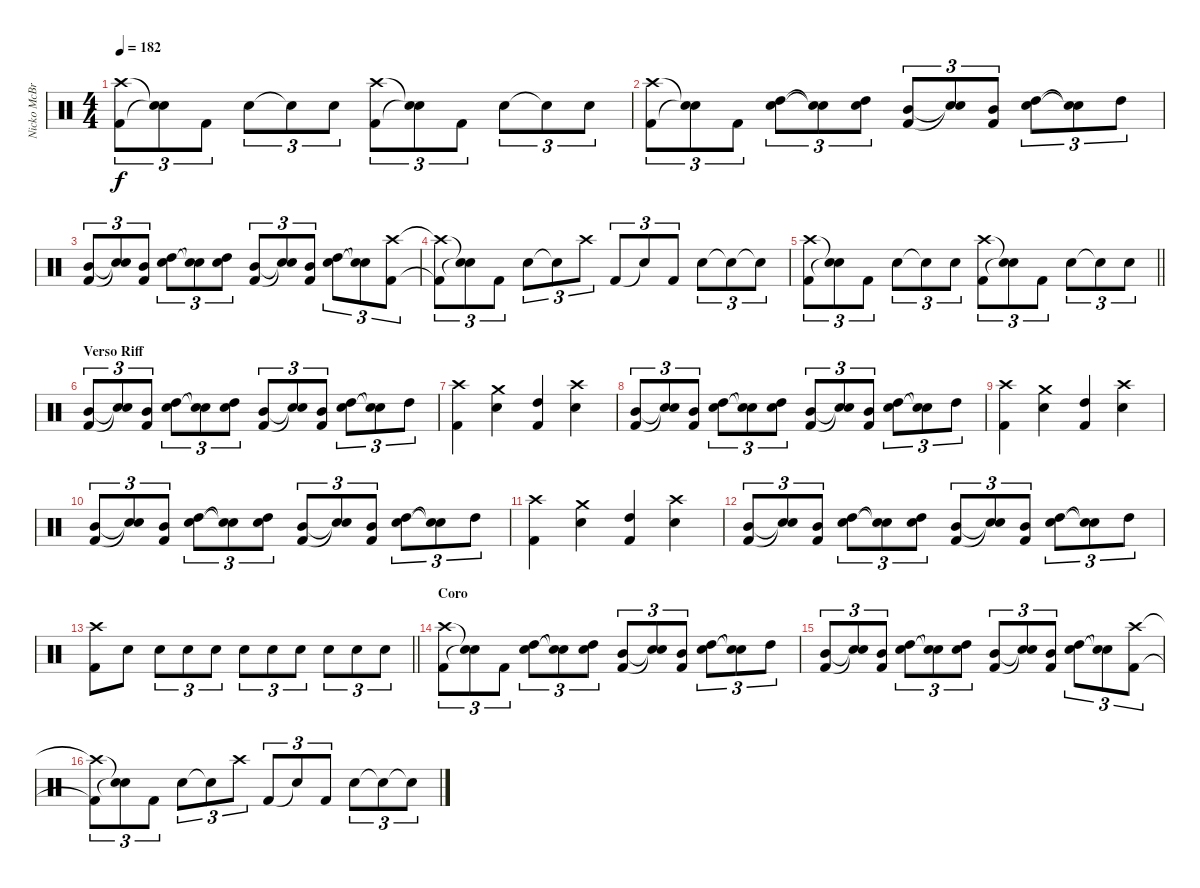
\track ("Nicko McBrain" "Nicko McBr") {instrument percussion}
\staff {score}
\articulation defaults
\ts (4 4)
\tempo 182
\clef neutral
\ks c
("Kick (hit) 2" "Crash high (hit)").8{tu (3 2) dy f} ("Snare (hit)"{t} "Snare (hit)"{t}).8{tu (3 2)} "Kick (hit) 2".8{tu (3 2)} "Snare (hit) 2".8{tu (3 2)} "Snare (hit)"{t}.8{tu (3 2)} "Snare (hit) 2".8{tu (3 2)} ("Kick (hit) 2" "Crash high (hit)").8{tu (3 2)} ("Snare (hit)"{t} "Snare (hit)"{t}).8{tu (3 2)} "Kick (hit) 2".8{tu (3 2)} "Snare (hit) 2".8{tu (3 2)} "Snare (hit)"{t}.8{tu (3 2)} "Snare (hit) 2".8{tu (3 2)} |
("Kick (hit) 2" "Crash high (hit)").8{tu (3 2)} ("Snare (hit)"{t} "Snare (hit)"{t}).8{tu (3 2)} "Kick (hit) 2".8{tu (3 2)} ("High Tom (hit)" "Snare (hit) 2").8{tu (3 2)} ("Snare (hit)"{t} "Snare (hit)"{t}).8{tu (3 2)} ("High Tom (hit)" "Snare (hit) 2").8{tu (3 2)} ("Mid Tom (hit)" "Kick (hit) 2").8{tu (3 2)} ("Snare (hit)"{t} "Snare (hit)"{t}).8{tu (3 2)} ("Mid Tom (hit)" "Kick (hit) 2").8{tu (3 2)} ("High Tom (hit)" "Snare (hit) 2").8{tu (3 2)} ("Snare (hit)"{t} "Snare (hit)"{t}).8{tu (3 2)} "High Tom (hit)".8{tu (3 2)} |
("Mid Tom (hit)" "Kick (hit) 2").8{tu (3 2)} ("Snare (hit)"{t} "Snare (hit)"{t}).8{tu (3 2)} ("Mid Tom (hit)" "Kick (hit) 2").8{tu (3 2)} ("High Tom (hit)" "Snare (hit) 2").8{tu (3 2)} ("Snare (hit)"{t} "Snare (hit)"{t}).8{tu (3 2)} ("High Tom (hit)" "Snare (hit) 2").8{tu (3 2)} ("Mid Tom (hit)" "Kick (hit) 2").8{tu (3 2)} ("Snare (hit)"{t} "Snare (hit)"{t}).8{tu (3 2)} ("Mid Tom (hit)" "Kick (hit) 2").8{tu (3 2)} ("High Tom (hit)" "Snare (hit) 2").8{tu (3 2)} ("Snare (hit)"{t} "Snare (hit)"{t}).8{tu (3 2)} ("Kick (hit) 2" "Crash high (hit)").8{tu (3 2)} |
("Kick (hit) 2"{t} "Crash high (hit)"{t}).8{tu (3 2)} ("Snare (hit)"{t} "Snare (hit)"{t}).8{tu (3 2)} "Kick (hit) 2".8{tu (3 2)} "Snare (hit) 2".8{tu (3 2)} "Snare (hit)"{t}.8{tu (3 2)} "Crash high (hit)".8{tu (3 2)} "Kick (hit) 2".8{tu (3 2)} "Snare (hit)"{t}.8{tu (3 2)} "Kick (hit) 2".8{tu (3 2)} "Snare (hit) 2".8{tu (3 2)} "Snare (hit)"{t}.8{tu (3 2)} "Snare (hit)"{t}.8{tu (3 2)} |
\barLineRight lightlight
("Kick (hit) 2" "Crash high (hit)").8{tu (3 2)} ("Snare (hit)"{t} "Snare (hit)"{t}).8{tu (3 2)} "Kick (hit) 2".8{tu (3 2)} "Snare (hit) 2".8{tu (3 2)} "Snare (hit)"{t}.8{tu (3 2)} "Snare (hit) 2".8{tu (3 2)} ("Kick (hit) 2" "Crash high (hit)").8{tu (3 2)} ("Snare (hit)"{t} "Snare (hit)"{t}).8{tu (3 2)} "Kick (hit) 2".8{tu (3 2)} "Snare (hit) 2".8{tu (3 2)} "Snare (hit)"{t}.8{tu (3 2)} "Snare (hit) 2".8{tu (3 2)} |
\section ("" "Verso Riff")
("Mid Tom (hit)" "Kick (hit) 2").8{tu (3 2)} ("Snare (hit)"{t} "Snare (hit)"{t}).8{tu (3 2)} ("Mid Tom (hit)" "Kick (hit) 2").8{tu (3 2)} ("High Tom (hit)" "Snare (hit) 2").8{tu (3 2)} ("Snare (hit)"{t} "Snare (hit)"{t}).8{tu (3 2)} ("High Tom (hit)" "Snare (hit) 2").8{tu (3 2)} ("Mid Tom (hit)" "Kick (hit) 2").8{tu (3 2)} ("Snare (hit)"{t} "Snare (hit)"{t}).8{tu (3 2)} ("Mid Tom (hit)" "Kick (hit) 2").8{tu (3 2)} ("High Tom (hit)" "Snare (hit) 2").8{tu (3 2)} ("Snare (hit)"{t} "Snare (hit)"{t}).8{tu (3 2)} "High Tom (hit)".8{tu (3 2)} |
("Kick (hit) 2" "Crash high (hit)").4 ("Snare (hit) 2" "Crash medium (hit)").4 ("High Tom (hit)" "Kick (hit) 2").4 ("Snare (hit) 2" "Crash high (hit)").4 |
("Mid Tom (hit)" "Kick (hit) 2").8{tu (3 2)} ("Snare (hit)"{t} "Snare (hit)"{t}).8{tu (3 2)} ("Mid Tom (hit)" "Kick (hit) 2").8{tu (3 2)} ("High Tom (hit)" "Snare (hit) 2").8{tu (3 2)} ("Snare (hit)"{t} "Snare (hit)"{t}).8{tu (3 2)} ("High Tom (hit)" "Snare (hit) 2").8{tu (3 2)} ("Mid Tom (hit)" "Kick (hit) 2").8{tu (3 2)} ("Snare (hit)"{t} "Snare (hit)"{t}).8{tu (3 2)} ("Mid Tom (hit)" "Kick (hit) 2").8{tu (3 2)} ("High Tom (hit)" "Snare (hit) 2").8{tu (3 2)} ("Snare (hit)"{t} "Snare (hit)"{t}).8{tu (3 2)} "High Tom (hit)".8{tu (3 2)} |
("Kick (hit) 2" "Crash high (hit)").4 ("Snare (hit) 2" "Crash medium (hit)").4 ("High Tom (hit)" "Kick (hit) 2").4 ("Snare (hit) 2" "Crash high (hit)").4 |
("Mid Tom (hit)" "Kick (hit) 2").8{tu (3 2)} ("Snare (hit)"{t} "Snare (hit)"{t}).8{tu (3 2)} ("Mid Tom (hit)" "Kick (hit) 2").8{tu (3 2)} ("High Tom (hit)" "Snare (hit) 2").8{tu (3 2)} ("Snare (hit)"{t} "Snare (hit)"{t}).8{tu (3 2)} ("High Tom (hit)" "Snare (hit) 2").8{tu (3 2)} ("Mid Tom (hit)" "Kick (hit) 2").8{tu (3 2)} ("Snare (hit)"{t} "Snare (hit)"{t}).8{tu (3 2)} ("Mid Tom (hit)" "Kick (hit) 2").8{tu (3 2)} ("High Tom (hit)" "Snare (hit) 2").8{tu (3 2)} ("Snare (hit)"{t} "Snare (hit)"{t}).8{tu (3 2)} "High Tom (hit)".8{tu (3 2)} |
("Kick (hit) 2" "Crash high (hit)").4 ("Snare (hit) 2" "Crash medium (hit)").4 ("High Tom (hit)" "Kick (hit) 2").4 ("Snare (hit) 2" "Crash high (hit)").4 |
("Mid Tom (hit)" "Kick (hit) 2").8{tu (3 2)} ("Snare (hit)"{t} "Snare (hit)"{t}).8{tu (3 2)} ("Mid Tom (hit)" "Kick (hit) 2").8{tu (3 2)} ("High Tom (hit)" "Snare (hit) 2").8{tu (3 2)} ("Snare (hit)"{t} "Snare (hit)"{t}).8{tu (3 2)} ("High Tom (hit)" "Snare (hit) 2").8{tu (3 2)} ("Mid Tom (hit)" "Kick (hit) 2").8{tu (3 2)} ("Snare (hit)"{t} "Snare (hit)"{t}).8{tu (3 2)} ("Mid Tom (hit)" "Kick (hit) 2").8{tu (3 2)} ("High Tom (hit)" "Snare (hit) 2").8{tu (3 2)} ("Snare (hit)"{t} "Snare (hit)"{t}).8{tu (3 2)} "High Tom (hit)".8{tu (3 2)} |
\barLineRight lightlight
("Kick (hit) 2" "Crash high (hit)").8 "Snare (hit) 2".8 "Snare (hit) 2".8{tu (3 2)} "Snare (hit) 2".8{tu (3 2)} "Snare (hit) 2".8{tu (3 2)} "Snare (hit) 2".8{tu (3 2)} "Snare (hit) 2".8{tu (3 2)} "Snare (hit) 2".8{tu (3 2)} "Snare (hit) 2".8{tu (3 2)} "Snare (hit) 2".8{tu (3 2)} "Snare (hit) 2".8{tu (3 2)} |
\section ("" "Coro")
("Kick (hit) 2" "Crash high (hit)").8{tu (3 2)} ("Snare (hit)"{t} "Snare (hit)"{t}).8{tu (3 2)} "Kick (hit) 2".8{tu (3 2)} ("High Tom (hit)" "Snare (hit) 2").8{tu (3 2)} ("Snare (hit)"{t} "Snare (hit)"{t}).8{tu (3 2)} ("High Tom (hit)" "Snare (hit) 2").8{tu (3 2)} ("Mid Tom (hit)" "Kick (hit) 2").8{tu (3 2)} ("Snare (hit)"{t} "Snare (hit)"{t}).8{tu (3 2)} ("Mid Tom (hit)" "Kick (hit) 2").8{tu (3 2)} ("High Tom (hit)" "Snare (hit) 2").8{tu (3 2)} ("Snare (hit)"{t} "Snare (hit)"{t}).8{tu (3 2)} "High Tom (hit)".8{tu (3 2)} |
("Mid Tom (hit)" "Kick (hit) 2").8{tu (3 2)} ("Snare (hit)"{t} "Snare (hit)"{t}).8{tu (3 2)} ("Mid Tom (hit)" "Kick (hit) 2").8{tu (3 2)} ("High Tom (hit)" "Snare (hit) 2").8{tu (3 2)} ("Snare (hit)"{t} "Snare (hit)"{t}).8{tu (3 2)} ("High Tom (hit)" "Snare (hit) 2").8{tu (3 2)} ("Mid Tom (hit)" "Kick (hit) 2").8{tu (3 2)} ("Snare (hit)"{t} "Snare (hit)"{t}).8{tu (3 2)} ("Mid Tom (hit)" "Kick (hit) 2").8{tu (3 2)} ("High Tom (hit)" "Snare (hit) 2").8{tu (3 2)} ("Snare (hit)"{t} "Snare (hit)"{t}).8{tu (3 2)} ("Kick (hit) 2" "Crash high (hit)").8{tu (3 2)} |
("Kick (hit) 2"{t} "Crash high (hit)"{t}).8{tu (3 2)} ("Snare (hit)"{t} "Snare (hit)"{t}).8{tu (3 2)} "Kick (hit) 2".8{tu (3 2)} "Snare (hit) 2".8{tu (3 2)} "Snare (hit)"{t}.8{tu (3 2)} "Crash high (hit)".8{tu (3 2)} "Kick (hit) 2".8{tu (3 2)} "Snare (hit)"{t}.8{tu (3 2)} "Kick (hit) 2".8{tu (3 2)} "Snare (hit) 2".8{tu (3 2)} "Snare (hit)"{t}.8{tu (3 2)} "Snare (hit)"{t}.8{tu (3 2)}
